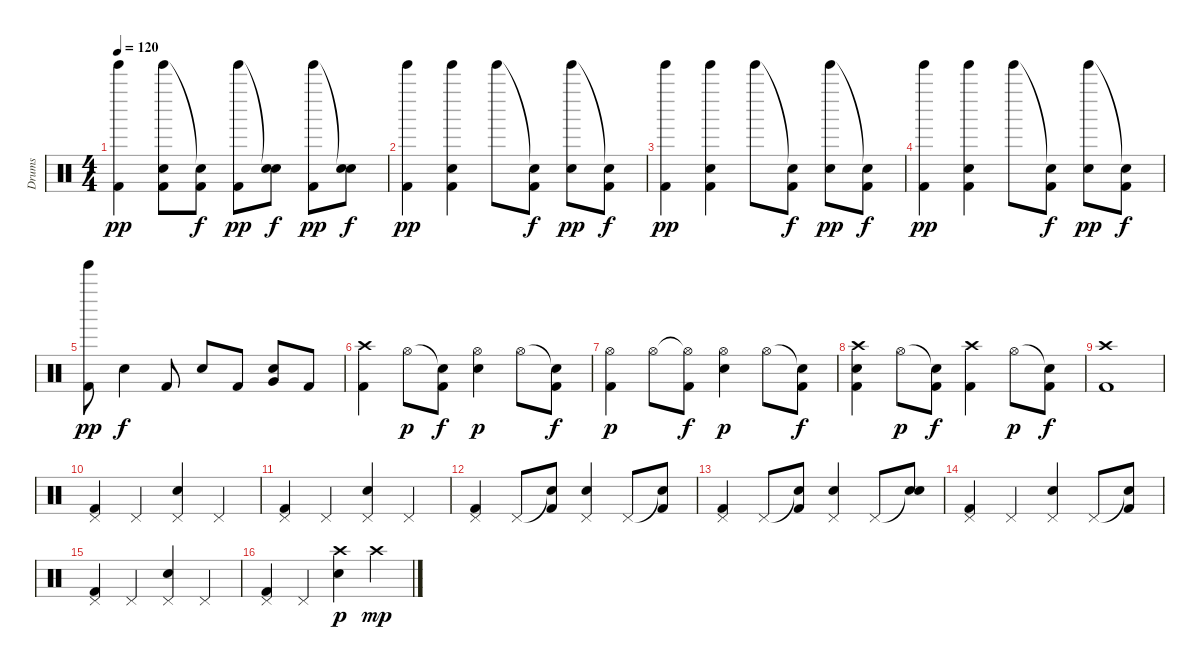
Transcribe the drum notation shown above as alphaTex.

\track ("Drums" "Drums") {instrument percussion}
\staff {score}
\articulation defaults
\ts (4 4)
\tempo 120
\clef neutral
\ks c
("Tinkle Bell (hit)" "Kick (hit) 2").4{dy pp} ("Tinkle Bell (hit)" "Electric Snare (hit)" "Kick (hit) 2").8 ("Snare (hit)"{t} "Kick (hit) 2").8{dy f} ("Tinkle Bell (hit)" "Kick (hit) 2").8{dy pp} ("Snare (hit)"{t} "Electric Snare (hit)").8{dy f} ("Tinkle Bell (hit)" "Kick (hit) 2").8{dy pp} ("Snare (hit)"{t} "Electric Snare (hit)").8{dy f} |
("Tinkle Bell (hit)" "Kick (hit) 2").4{dy pp} ("Tinkle Bell (hit)" "Electric Snare (hit)" "Kick (hit) 2").4 "Tinkle Bell (hit)".8 ("Snare (hit)"{t} "Kick (hit) 2").8{dy f} ("Tinkle Bell (hit)" "Electric Snare (hit)").8{dy pp} ("Snare (hit)"{t} "Kick (hit) 2").8{dy f} |
("Tinkle Bell (hit)" "Kick (hit) 2").4{dy pp} ("Tinkle Bell (hit)" "Electric Snare (hit)" "Kick (hit) 2").4 "Tinkle Bell (hit)".8 ("Snare (hit)"{t} "Kick (hit) 2").8{dy f} ("Tinkle Bell (hit)" "Electric Snare (hit)").8{dy pp} ("Snare (hit)"{t} "Kick (hit) 2").8{dy f} |
("Tinkle Bell (hit)" "Kick (hit) 2").4{dy pp} ("Tinkle Bell (hit)" "Electric Snare (hit)" "Kick (hit) 2").4 "Tinkle Bell (hit)".8 ("Snare (hit)"{t} "Kick (hit) 2").8{dy f} ("Tinkle Bell (hit)" "Electric Snare (hit)").8{dy pp} ("Snare (hit)"{t} "Kick (hit) 2").8{dy f} |
("Tinkle Bell (hit)" "Kick (hit) 2").8{dy pp} "Electric Snare (hit)".4{dy f} "Kick (hit) 2".8 "Electric Snare (hit)".8 "Kick (hit) 2".8 ("Electric Snare (hit)" "Very Low Tom (hit)").8 "Kick (hit) 2".8 |
("Crash high (hit)" "Kick (hit) 2").4 "Hi-Hat (open)".8{dy p} ("Snare (hit)"{t} "Kick (hit) 2").8{dy f} ("Hi-Hat (open)" "Electric Snare (hit)").4{dy p} "Hi-Hat (open)".8 ("Snare (hit)"{t} "Kick (hit) 2").8{dy f} |
("Hi-Hat (open)" "Kick (hit) 2").4{dy p} "Hi-Hat (open)".8 ("Hi-Hat (open)"{t} "Kick (hit) 2").8{dy f} ("Hi-Hat (open)" "Electric Snare (hit)").4{dy p} "Hi-Hat (open)".8 ("Snare (hit)"{t} "Kick (hit) 2").8{dy f} |
("Crash high (hit)" "Electric Snare (hit)" "Kick (hit) 2").4 "Hi-Hat (open)".8{dy p} ("Snare (hit)"{t} "Kick (hit) 2").8{dy f} ("Crash high (hit)" "Kick (hit) 2").4 "Hi-Hat (open)".8{dy p} ("Snare (hit)"{t} "Kick (hit) 2").8{dy f} |
("Crash high (hit)" "Kick (hit) 2").1 |
("Pedal Hi-Hat (hit)" "Kick (hit) 2").4 "Pedal Hi-Hat (hit)".4 ("Pedal Hi-Hat (hit)" "Electric Snare (hit)").4 "Pedal Hi-Hat (hit)".4 |
("Pedal Hi-Hat (hit)" "Kick (hit) 2").4 "Pedal Hi-Hat (hit)".4 ("Pedal Hi-Hat (hit)" "Electric Snare (hit)").4 "Pedal Hi-Hat (hit)".4 |
("Pedal Hi-Hat (hit)" "Kick (hit) 2").4 "Pedal Hi-Hat (hit)".8 ("Snare (hit)"{t} "Kick (hit) 2").8 ("Pedal Hi-Hat (hit)" "Electric Snare (hit)").4 "Pedal Hi-Hat (hit)".8 ("Snare (hit)"{t} "Kick (hit) 2").8 |
("Pedal Hi-Hat (hit)" "Kick (hit) 2").4 "Pedal Hi-Hat (hit)".8 ("Snare (hit)"{t} "Kick (hit) 2").8 ("Pedal Hi-Hat (hit)" "Electric Snare (hit)").4 "Pedal Hi-Hat (hit)".8 ("Snare (hit)"{t} "Electric Snare (hit)").8 |
("Pedal Hi-Hat (hit)" "Kick (hit) 2").4 "Pedal Hi-Hat (hit)".4 ("Pedal Hi-Hat (hit)" "Electric Snare (hit)").4 "Pedal Hi-Hat (hit)".8 ("Snare (hit)"{t} "Kick (hit) 2").8 |
("Pedal Hi-Hat (hit)" "Kick (hit) 2").4 "Pedal Hi-Hat (hit)".4 ("Pedal Hi-Hat (hit)" "Electric Snare (hit)").4 "Pedal Hi-Hat (hit)".4 |
("Pedal Hi-Hat (hit)" "Kick (hit) 2").4 "Pedal Hi-Hat (hit)".4 ("Crash high (hit)" "Electric Snare (hit)").4{dy p} "Crash high (hit)".4{dy mp}
